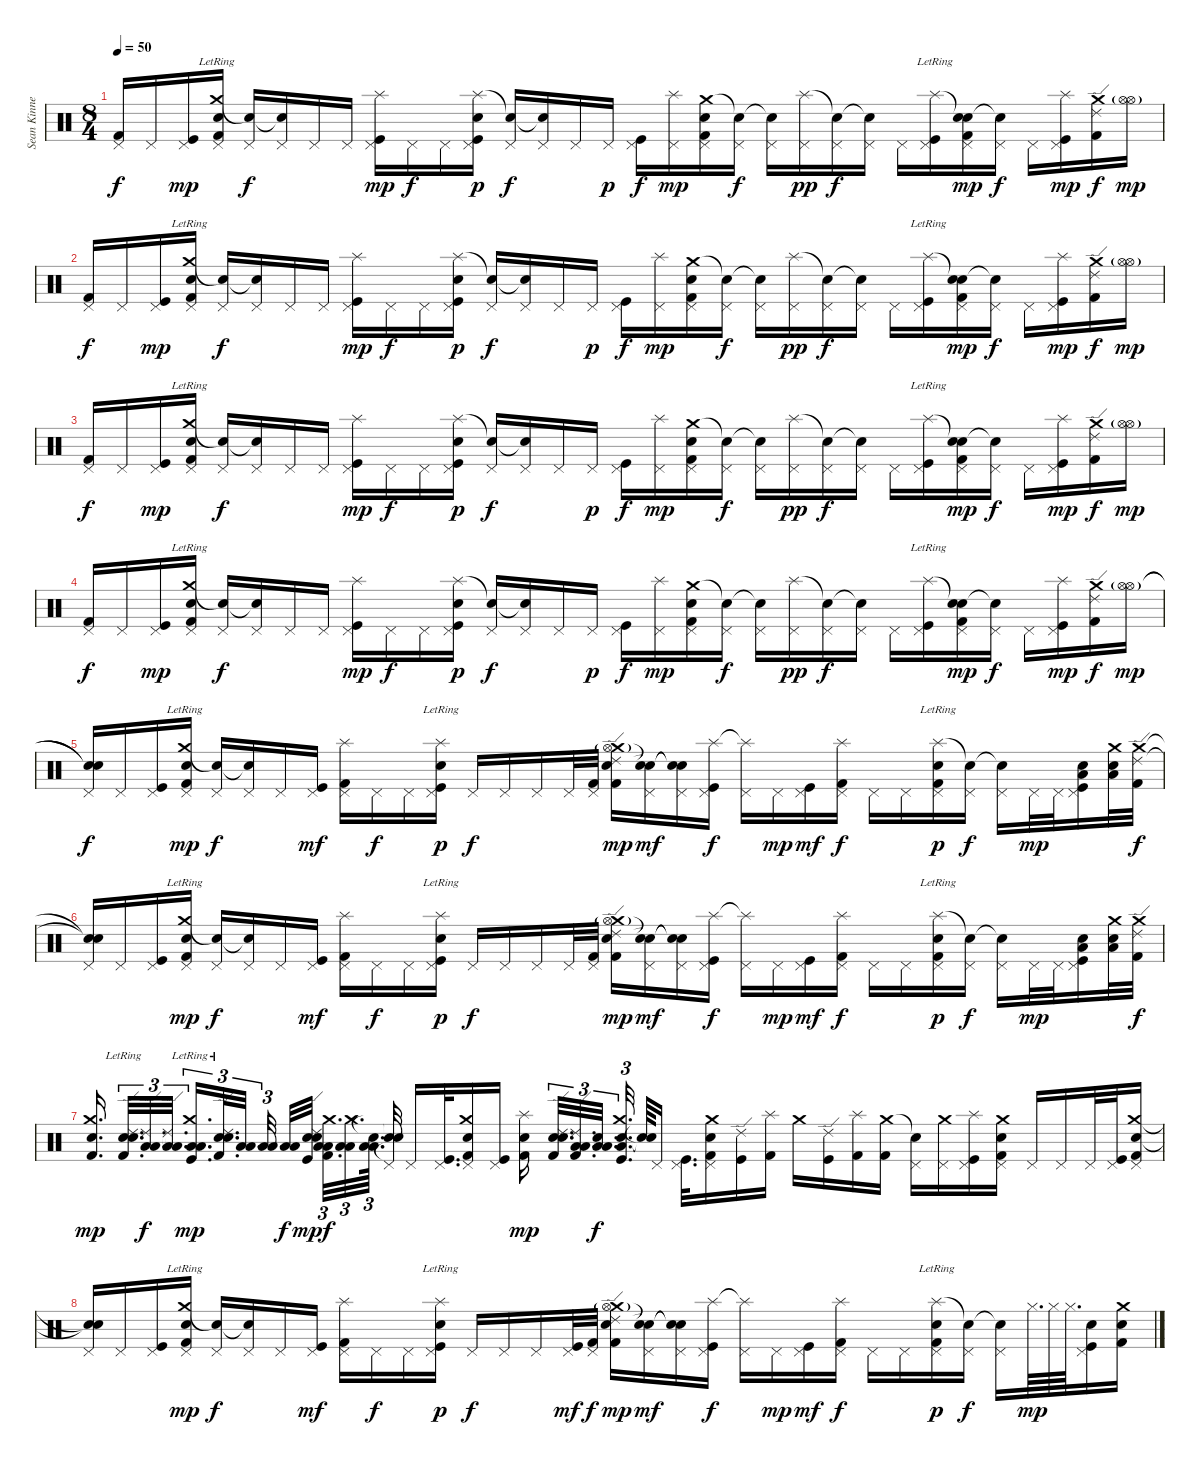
\track ("Sean Kinney" "Sean Kinne") {instrument percussion}
\staff {score}
\articulation defaults
\ts (8 4)
\tempo 50
\clef neutral
\ks c
("Pedal Hi-Hat (hit)" "Kick (hit) 2").16{dy f} "Pedal Hi-Hat (hit)".16 ("Pedal Hi-Hat (hit)" "Kick (hit)").16{dy mp} ("Crash medium (hit)"{lr} "Snare (hit) 2" "Pedal Hi-Hat (hit)" "Kick (hit) 2").16 ("Snare (hit)"{t} "Pedal Hi-Hat (hit)").16{dy f} ("Snare (hit)"{t} "Pedal Hi-Hat (hit)").16 "Pedal Hi-Hat (hit)".16 "Pedal Hi-Hat (hit)".16 ("Splash (hit)" "Pedal Hi-Hat (hit)" "Kick (hit)").16{dy mp} "Pedal Hi-Hat (hit)".16{dy f} "Pedal Hi-Hat (hit)".16 ("Splash (hit)" "Snare (hit) 2" "Pedal Hi-Hat (hit)" "Kick (hit)").16{dy p} ("Snare (hit)"{t} "Pedal Hi-Hat (hit)").16{dy f} ("Snare (hit)"{t} "Pedal Hi-Hat (hit)").16 "Pedal Hi-Hat (hit)".16 "Pedal Hi-Hat (hit)".16{dy p} ("Pedal Hi-Hat (hit)" "Kick (hit)").16{dy f} ("Splash (hit)" "Pedal Hi-Hat (hit)").16{dy mp} ("Crash medium (hit)" "Snare (hit) 2" "Pedal Hi-Hat (hit)" "Kick (hit) 2").16 ("Snare (hit)"{t} "Pedal Hi-Hat (hit)").16{dy f} ("Snare (hit)"{t} "Pedal Hi-Hat (hit)").16 ("Splash (hit)" "Pedal Hi-Hat (hit)").16{dy pp} ("Snare (hit)"{t} "Pedal Hi-Hat (hit)").16{dy f} ("Snare (hit)"{t} "Pedal Hi-Hat (hit)").16 "Pedal Hi-Hat (hit)".16 ("Splash (hit)"{lr} "Pedal Hi-Hat (hit)" "Kick (hit)").16 ("Snare (hit)"{t} "Snare (hit) 2" "Pedal Hi-Hat (hit)" "Kick (hit) 2").16{dy mp} ("Snare (hit)"{t} "Pedal Hi-Hat (hit)").16{dy f} "Pedal Hi-Hat (hit)".16 ("Splash (hit)" "Pedal Hi-Hat (hit)" "Kick (hit)").16{dy mp} ("Crash medium (hit)" "Ride (edge) 2" "Kick (hit) 2").16{dy f} ("Hi-Hat (open)"{g} "Hi-Hat (open)").16{dy mp} |
("Pedal Hi-Hat (hit)" "Kick (hit) 2").16{dy f} "Pedal Hi-Hat (hit)".16 ("Pedal Hi-Hat (hit)" "Kick (hit)").16{dy mp} ("Crash medium (hit)"{lr} "Snare (hit) 2" "Pedal Hi-Hat (hit)" "Kick (hit) 2").16 ("Snare (hit)"{t} "Pedal Hi-Hat (hit)").16{dy f} ("Snare (hit)"{t} "Pedal Hi-Hat (hit)").16 "Pedal Hi-Hat (hit)".16 "Pedal Hi-Hat (hit)".16 ("Splash (hit)" "Pedal Hi-Hat (hit)" "Kick (hit)").16{dy mp} "Pedal Hi-Hat (hit)".16{dy f} "Pedal Hi-Hat (hit)".16 ("Splash (hit)" "Snare (hit) 2" "Pedal Hi-Hat (hit)" "Kick (hit)").16{dy p} ("Snare (hit)"{t} "Pedal Hi-Hat (hit)").16{dy f} ("Snare (hit)"{t} "Pedal Hi-Hat (hit)").16 "Pedal Hi-Hat (hit)".16 "Pedal Hi-Hat (hit)".16{dy p} ("Pedal Hi-Hat (hit)" "Kick (hit)").16{dy f} ("Splash (hit)" "Pedal Hi-Hat (hit)").16{dy mp} ("Crash medium (hit)" "Snare (hit) 2" "Pedal Hi-Hat (hit)" "Kick (hit) 2").16 ("Snare (hit)"{t} "Pedal Hi-Hat (hit)").16{dy f} ("Snare (hit)"{t} "Pedal Hi-Hat (hit)").16 ("Splash (hit)" "Pedal Hi-Hat (hit)").16{dy pp} ("Snare (hit)"{t} "Pedal Hi-Hat (hit)").16{dy f} ("Snare (hit)"{t} "Pedal Hi-Hat (hit)").16 "Pedal Hi-Hat (hit)".16 ("Splash (hit)"{lr} "Pedal Hi-Hat (hit)" "Kick (hit)").16 ("Snare (hit)"{t} "Snare (hit) 2" "Pedal Hi-Hat (hit)" "Kick (hit) 2").16{dy mp} ("Snare (hit)"{t} "Pedal Hi-Hat (hit)").16{dy f} "Pedal Hi-Hat (hit)".16 ("Splash (hit)" "Pedal Hi-Hat (hit)" "Kick (hit)").16{dy mp} ("Crash medium (hit)" "Ride (edge) 2" "Kick (hit) 2").16{dy f} ("Hi-Hat (open)"{g} "Hi-Hat (open)").16{dy mp} |
("Pedal Hi-Hat (hit)" "Kick (hit) 2").16{dy f} "Pedal Hi-Hat (hit)".16 ("Pedal Hi-Hat (hit)" "Kick (hit)").16{dy mp} ("Crash medium (hit)"{lr} "Snare (hit) 2" "Pedal Hi-Hat (hit)" "Kick (hit) 2").16 ("Snare (hit)"{t} "Pedal Hi-Hat (hit)").16{dy f} ("Snare (hit)"{t} "Pedal Hi-Hat (hit)").16 "Pedal Hi-Hat (hit)".16 "Pedal Hi-Hat (hit)".16 ("Splash (hit)" "Pedal Hi-Hat (hit)" "Kick (hit)").16{dy mp} "Pedal Hi-Hat (hit)".16{dy f} "Pedal Hi-Hat (hit)".16 ("Splash (hit)" "Snare (hit) 2" "Pedal Hi-Hat (hit)" "Kick (hit)").16{dy p} ("Snare (hit)"{t} "Pedal Hi-Hat (hit)").16{dy f} ("Snare (hit)"{t} "Pedal Hi-Hat (hit)").16 "Pedal Hi-Hat (hit)".16 "Pedal Hi-Hat (hit)".16{dy p} ("Pedal Hi-Hat (hit)" "Kick (hit)").16{dy f} ("Splash (hit)" "Pedal Hi-Hat (hit)").16{dy mp} ("Crash medium (hit)" "Snare (hit) 2" "Pedal Hi-Hat (hit)" "Kick (hit) 2").16 ("Snare (hit)"{t} "Pedal Hi-Hat (hit)").16{dy f} ("Snare (hit)"{t} "Pedal Hi-Hat (hit)").16 ("Splash (hit)" "Pedal Hi-Hat (hit)").16{dy pp} ("Snare (hit)"{t} "Pedal Hi-Hat (hit)").16{dy f} ("Snare (hit)"{t} "Pedal Hi-Hat (hit)").16 "Pedal Hi-Hat (hit)".16 ("Splash (hit)"{lr} "Pedal Hi-Hat (hit)" "Kick (hit)").16 ("Snare (hit)"{t} "Snare (hit) 2" "Pedal Hi-Hat (hit)" "Kick (hit) 2").16{dy mp} ("Snare (hit)"{t} "Pedal Hi-Hat (hit)").16{dy f} "Pedal Hi-Hat (hit)".16 ("Splash (hit)" "Pedal Hi-Hat (hit)" "Kick (hit)").16{dy mp} ("Crash medium (hit)" "Ride (edge) 2" "Kick (hit) 2").16{dy f} ("Hi-Hat (open)"{g} "Hi-Hat (open)").16{dy mp} |
("Pedal Hi-Hat (hit)" "Kick (hit) 2").16{dy f} "Pedal Hi-Hat (hit)".16 ("Pedal Hi-Hat (hit)" "Kick (hit)").16{dy mp} ("Crash medium (hit)"{lr} "Snare (hit) 2" "Pedal Hi-Hat (hit)" "Kick (hit) 2").16 ("Snare (hit)"{t} "Pedal Hi-Hat (hit)").16{dy f} ("Snare (hit)"{t} "Pedal Hi-Hat (hit)").16 "Pedal Hi-Hat (hit)".16 "Pedal Hi-Hat (hit)".16 ("Splash (hit)" "Pedal Hi-Hat (hit)" "Kick (hit)").16{dy mp} "Pedal Hi-Hat (hit)".16{dy f} "Pedal Hi-Hat (hit)".16 ("Splash (hit)" "Snare (hit) 2" "Pedal Hi-Hat (hit)" "Kick (hit)").16{dy p} ("Snare (hit)"{t} "Pedal Hi-Hat (hit)").16{dy f} ("Snare (hit)"{t} "Pedal Hi-Hat (hit)").16 "Pedal Hi-Hat (hit)".16 "Pedal Hi-Hat (hit)".16{dy p} ("Pedal Hi-Hat (hit)" "Kick (hit)").16{dy f} ("Splash (hit)" "Pedal Hi-Hat (hit)").16{dy mp} ("Crash medium (hit)" "Snare (hit) 2" "Pedal Hi-Hat (hit)" "Kick (hit) 2").16 ("Snare (hit)"{t} "Pedal Hi-Hat (hit)").16{dy f} ("Snare (hit)"{t} "Pedal Hi-Hat (hit)").16 ("Splash (hit)" "Pedal Hi-Hat (hit)").16{dy pp} ("Snare (hit)"{t} "Pedal Hi-Hat (hit)").16{dy f} ("Snare (hit)"{t} "Pedal Hi-Hat (hit)").16 "Pedal Hi-Hat (hit)".16 ("Splash (hit)"{lr} "Pedal Hi-Hat (hit)" "Kick (hit)").16 ("Snare (hit)"{t} "Snare (hit) 2" "Pedal Hi-Hat (hit)" "Kick (hit) 2").16{dy mp} ("Snare (hit)"{t} "Pedal Hi-Hat (hit)").16{dy f} "Pedal Hi-Hat (hit)".16 ("Splash (hit)" "Pedal Hi-Hat (hit)" "Kick (hit)").16{dy mp} ("Crash medium (hit)" "Ride (edge) 2" "Kick (hit) 2").16{dy f} ("Hi-Hat (open)"{g} "Hi-Hat (open)").16{dy mp} |
("Snare (hit)"{t} "Snare (hit)"{t} "Pedal Hi-Hat (hit)").16{dy f} "Pedal Hi-Hat (hit)".16 ("Pedal Hi-Hat (hit)" "Kick (hit)").16 ("Crash medium (hit)"{lr} "Snare (hit) 2" "Pedal Hi-Hat (hit)" "Kick (hit) 2").16{dy mp} ("Snare (hit)"{t} "Pedal Hi-Hat (hit)").16{dy f} ("Snare (hit)"{t} "Pedal Hi-Hat (hit)").16 "Pedal Hi-Hat (hit)".16 ("Pedal Hi-Hat (hit)" "Kick (hit)").16{dy mf} ("Splash (hit)" "Pedal Hi-Hat (hit)" "Kick (hit) 2").16 "Pedal Hi-Hat (hit)".16{dy f} "Pedal Hi-Hat (hit)".16 ("Splash (hit)"{lr} "Snare (hit) 2" "Pedal Hi-Hat (hit)" "Kick (hit)").16{dy p} "Pedal Hi-Hat (hit)".16{dy f} "Pedal Hi-Hat (hit)".16 "Pedal Hi-Hat (hit)".16 "Pedal Hi-Hat (hit)".32 ("Pedal Hi-Hat (hit)" "Kick (hit) 2").32 ("Crash medium (hit)" "Ride (edge) 2" "Snare (hit) 2" "Hi-Hat (open)"{g} "Kick (hit) 2").16{dy mp} ("Snare (hit)"{t} "Snare (hit)"{t} "Pedal Hi-Hat (hit)").16{dy mf} ("Snare (hit)"{t} "Snare (hit)"{t} "Pedal Hi-Hat (hit)").16 ("Splash (hit)" "Pedal Hi-Hat (hit)" "Kick (hit)").16{dy f} ("Splash (hit)"{t} "Pedal Hi-Hat (hit)").16 "Pedal Hi-Hat (hit)".16{dy mp} ("Pedal Hi-Hat (hit)" "Kick (hit)").16{dy mf} ("Splash (hit)" "Pedal Hi-Hat (hit)" "Kick (hit) 2").16{dy f} "Pedal Hi-Hat (hit)".16 "Pedal Hi-Hat (hit)".16 ("Splash (hit)"{lr} "Snare (hit) 2" "Pedal Hi-Hat (hit)" "Kick (hit) 2").16{dy p} ("Snare (hit)"{t} "Pedal Hi-Hat (hit)").16{dy f} ("Snare (hit)"{t} "Pedal Hi-Hat (hit)").16 "Pedal Hi-Hat (hit)".32{dy mp} "Pedal Hi-Hat (hit)".32 ("Low Tom (hit)" "Snare (hit) 2" "Pedal Hi-Hat (hit)" "Kick (hit)").16 ("Crash medium (hit)" "Low Floor Tom (hit)" "Snare (hit) 2").32 ("Crash medium (hit)" "Ride (edge) 2" "Kick (hit) 2").32{dy f} |
("Snare (hit)"{t} "Snare (hit)"{t} "Pedal Hi-Hat (hit)").16 "Pedal Hi-Hat (hit)".16 ("Pedal Hi-Hat (hit)" "Kick (hit)").16 ("Crash medium (hit)"{lr} "Snare (hit) 2" "Pedal Hi-Hat (hit)" "Kick (hit) 2").16{dy mp} ("Snare (hit)"{t} "Pedal Hi-Hat (hit)").16{dy f} ("Snare (hit)"{t} "Pedal Hi-Hat (hit)").16 "Pedal Hi-Hat (hit)".16 ("Pedal Hi-Hat (hit)" "Kick (hit)").16{dy mf} ("Splash (hit)" "Pedal Hi-Hat (hit)" "Kick (hit) 2").16 "Pedal Hi-Hat (hit)".16{dy f} "Pedal Hi-Hat (hit)".16 ("Splash (hit)"{lr} "Snare (hit) 2" "Pedal Hi-Hat (hit)" "Kick (hit)").16{dy p} "Pedal Hi-Hat (hit)".16{dy f} "Pedal Hi-Hat (hit)".16 "Pedal Hi-Hat (hit)".16 "Pedal Hi-Hat (hit)".32 ("Pedal Hi-Hat (hit)" "Kick (hit) 2").32 ("Crash medium (hit)" "Ride (edge) 2" "Snare (hit) 2" "Hi-Hat (open)"{g} "Kick (hit) 2").16{dy mp} ("Snare (hit)"{t} "Snare (hit)"{t} "Pedal Hi-Hat (hit)").16{dy mf} ("Snare (hit)"{t} "Snare (hit)"{t} "Pedal Hi-Hat (hit)").16 ("Splash (hit)" "Pedal Hi-Hat (hit)" "Kick (hit)").16{dy f} ("Splash (hit)"{t} "Pedal Hi-Hat (hit)").16 "Pedal Hi-Hat (hit)".16{dy mp} ("Pedal Hi-Hat (hit)" "Kick (hit)").16{dy mf} ("Splash (hit)" "Pedal Hi-Hat (hit)" "Kick (hit) 2").16{dy f} "Pedal Hi-Hat (hit)".16 "Pedal Hi-Hat (hit)".16 ("Splash (hit)"{lr} "Snare (hit) 2" "Pedal Hi-Hat (hit)" "Kick (hit) 2").16{dy p} ("Snare (hit)"{t} "Pedal Hi-Hat (hit)").16{dy f} ("Snare (hit)"{t} "Pedal Hi-Hat (hit)").16 "Pedal Hi-Hat (hit)".32{dy mp} "Pedal Hi-Hat (hit)".32 ("Low Tom (hit)" "Snare (hit) 2" "Pedal Hi-Hat (hit)" "Kick (hit)").16 ("Crash medium (hit)" "Low Floor Tom (hit)" "Snare (hit) 2").32 ("Crash medium (hit)" "Ride (edge) 2" "Kick (hit) 2").32{dy f} |
("Crash medium (hit)" "Snare (hit) 2" "Kick (hit) 2").16{d dy mp} ("Ride (edge) 2"{lr} "Electric Snare (hit)" "Snare (hit) 2" "Kick (hit) 2").32{d tu (3 2)} ("Ride (edge) 2" "Low Floor Tom (hit)" "Low Floor Tom (hit)").32{d tu (3 2) dy f} ("Ride (edge) 2"{t} "Low Floor Tom (hit)" "Low Floor Tom (hit)").32{d tu (3 2)} ("Crash medium (hit)"{lr} "Low Tom (hit)" "Low Tom (hit)" "Kick (hit)").16{d tu (3 2) dy mp} ("Ride (edge) 2"{lr} "Electric Snare (hit)" "Snare (hit) 2" "Kick (hit) 2").32{d tu (3 2)} ("Low Floor Tom (hit)" "Low Floor Tom (hit)").32{d tu (3 2)} ("Low Floor Tom (hit)" "Low Floor Tom (hit)").32{d tu (3 2)} ("Low Tom (hit)" "Low Tom (hit)").32{dy f} ("Ride (edge) 2" "Electric Snare (hit)" "Snare (hit) 2" "Kick (hit)").32{dy mp} ("Crash medium (hit)" "Low Floor Tom (hit)" "Low Floor Tom (hit)" "Kick (hit) 2").32{d tu (3 2) dy f} ("Crash medium (hit)" "Low Floor Tom (hit)" "Low Floor Tom (hit)").32{d tu (3 2)} ("Snare (hit)"{t} "Low Tom (hit)" "Low Tom (hit)").64{d tu (3 2)} ("Snare (hit)"{t} "Snare (hit)"{t} "Pedal Hi-Hat (hit)"{t}).32 "Pedal Hi-Hat (hit)".16 ("Pedal Hi-Hat (hit)" "Kick (hit)").32{d} ("Crash medium (hit)" "Snare (hit) 2" "Pedal Hi-Hat (hit)" "Kick (hit) 2").16 ("Pedal Hi-Hat (hit)" "Kick (hit)").16 ("Splash (hit)" "Snare (hit) 2" "Kick (hit) 2").16{dy mp} ("Ride (edge) 2" "Electric Snare (hit)" "Snare (hit) 2" "Kick (hit) 2").32{d tu (3 2)} ("Ride (edge) 2" "Low Floor Tom (hit)" "Low Floor Tom (hit)" "Kick (hit) 2").32{d tu (3 2)} ("Snare (hit)"{t} "Low Floor Tom (hit)" "Low Floor Tom (hit)").32{d tu (3 2) dy f} ("Crash medium (hit)" "Snare (hit) 2" "Low Tom (hit)" "Kick (hit)").32{d tu (3 2)} ("Snare (hit)"{t} "Snare (hit)"{t}).64 "Pedal Hi-Hat (hit)".16 ("Pedal Hi-Hat (hit)" "Kick (hit)").32{d} ("Crash medium (hit)" "Snare (hit) 2" "Pedal Hi-Hat (hit)" "Kick (hit) 2").16 ("Ride (edge) 2" "Kick (hit)").16 ("Splash (hit)" "Kick (hit) 2").16 "Crash medium (hit)".16 ("Ride (edge) 2" "Kick (hit)").16 ("Splash (hit)" "Kick (hit) 2").16 ("Crash medium (hit)" "Kick (hit) 2").16 ("Snare (hit)"{t} "Pedal Hi-Hat (hit)").16 ("Crash medium (hit)" "Pedal Hi-Hat (hit)").16 ("Splash (hit)" "Pedal Hi-Hat (hit)" "Kick (hit)").16 ("Crash medium (hit)" "Snare (hit) 2" "Pedal Hi-Hat (hit)" "Kick (hit) 2").16 "Pedal Hi-Hat (hit)".16 "Pedal Hi-Hat (hit)".16 "Pedal Hi-Hat (hit)".32 ("Pedal Hi-Hat (hit)" "Kick (hit)").32 ("Crash medium (hit)" "Snare (hit) 2" "Pedal Hi-Hat (hit)" "Kick (hit) 2").16 |
("Snare (hit)"{t} "Snare (hit)"{t} "Pedal Hi-Hat (hit)").16 "Pedal Hi-Hat (hit)".16 ("Pedal Hi-Hat (hit)" "Kick (hit)").16 ("Crash medium (hit)"{lr} "Snare (hit) 2" "Pedal Hi-Hat (hit)" "Kick (hit) 2").16{dy mp} ("Snare (hit)"{t} "Pedal Hi-Hat (hit)").16{dy f} ("Snare (hit)"{t} "Pedal Hi-Hat (hit)").16 "Pedal Hi-Hat (hit)".16 ("Pedal Hi-Hat (hit)" "Kick (hit)").16{dy mf} ("Splash (hit)" "Pedal Hi-Hat (hit)" "Kick (hit) 2").16 "Pedal Hi-Hat (hit)".16{dy f} "Pedal Hi-Hat (hit)".16 ("Splash (hit)"{lr} "Snare (hit) 2" "Pedal Hi-Hat (hit)" "Kick (hit)").16{dy p} "Pedal Hi-Hat (hit)".16{dy f} "Pedal Hi-Hat (hit)".16 "Pedal Hi-Hat (hit)".16 ("Pedal Hi-Hat (hit)" "Kick (hit)").32{dy mf} ("Pedal Hi-Hat (hit)" "Kick (hit) 2").32{dy f} ("Crash medium (hit)" "Ride (edge) 2" "Snare (hit) 2" "Hi-Hat (open)"{g} "Kick (hit) 2").16{dy mp} ("Snare (hit)"{t} "Snare (hit)"{t} "Pedal Hi-Hat (hit)").16{dy mf} ("Snare (hit)"{t} "Snare (hit)"{t} "Pedal Hi-Hat (hit)").16 ("Splash (hit)" "Pedal Hi-Hat (hit)" "Kick (hit)").16{dy f} ("Splash (hit)"{t} "Pedal Hi-Hat (hit)").16 "Pedal Hi-Hat (hit)".16{dy mp} ("Pedal Hi-Hat (hit)" "Kick (hit)").16{dy mf} ("Splash (hit)" "Pedal Hi-Hat (hit)" "Kick (hit) 2").16{dy f} "Pedal Hi-Hat (hit)".16 "Pedal Hi-Hat (hit)".16 ("Splash (hit)"{lr} "Snare (hit) 2" "Pedal Hi-Hat (hit)" "Kick (hit) 2").16{dy p} ("Snare (hit)"{t} "Pedal Hi-Hat (hit)").16{dy f} ("Snare (hit)"{t} "Pedal Hi-Hat (hit)").16 "Hi-Hat (closed)".64{d dy mp} "Hi-Hat (closed)".64 "Hi-Hat (closed)".64{d} ("Snare (hit) 2" "Pedal Hi-Hat (hit)" "Kick (hit)").16 ("Crash medium (hit)" "Snare (hit) 2" "Kick (hit) 2").16
